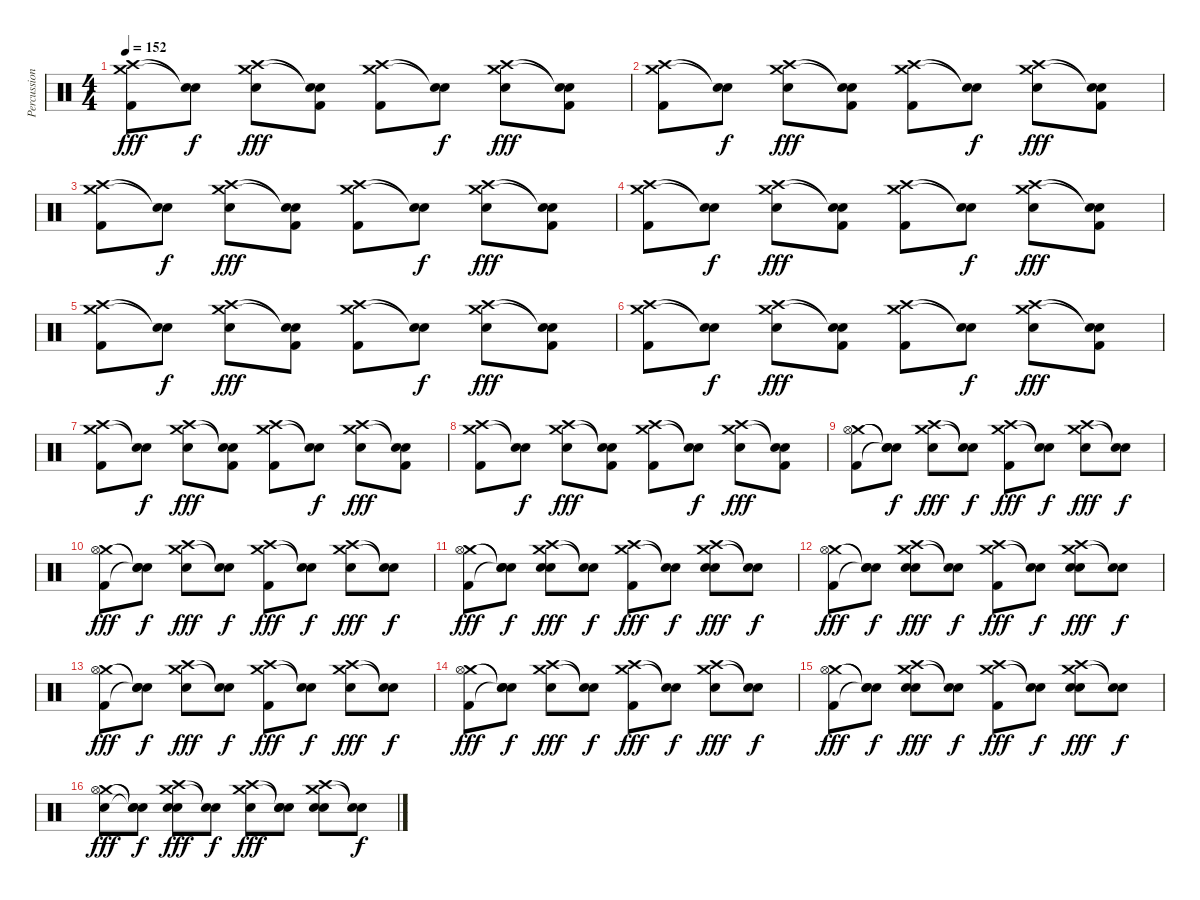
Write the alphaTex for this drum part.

\track ("Percussion" "Percussion") {instrument percussion}
\staff {score}
\articulation defaults
\ts (4 4)
\tempo 152
\clef neutral
\ks c
("Crash medium (hit)" "Crash high (hit)" "Kick (hit) 2").8{dy fff} ("Snare (hit)"{t} "Snare (hit)"{t}).8{dy f} ("Crash medium (hit)" "Crash high (hit)" "Electric Snare (hit)").8{dy fff} ("Snare (hit)"{t} "Snare (hit)"{t} "Kick (hit) 2").8 ("Crash medium (hit)" "Crash high (hit)" "Kick (hit) 2").8 ("Snare (hit)"{t} "Snare (hit)"{t}).8{dy f} ("Crash medium (hit)" "Crash high (hit)" "Electric Snare (hit)").8{dy fff} ("Snare (hit)"{t} "Snare (hit)"{t} "Kick (hit) 2").8 |
("Crash medium (hit)" "Crash high (hit)" "Kick (hit) 2").8 ("Snare (hit)"{t} "Snare (hit)"{t}).8{dy f} ("Crash medium (hit)" "Crash high (hit)" "Electric Snare (hit)").8{dy fff} ("Snare (hit)"{t} "Snare (hit)"{t} "Kick (hit) 2").8 ("Crash medium (hit)" "Crash high (hit)" "Kick (hit) 2").8 ("Snare (hit)"{t} "Snare (hit)"{t}).8{dy f} ("Crash medium (hit)" "Crash high (hit)" "Electric Snare (hit)").8{dy fff} ("Snare (hit)"{t} "Snare (hit)"{t} "Kick (hit) 2").8 |
("Crash medium (hit)" "Crash high (hit)" "Kick (hit) 2").8 ("Snare (hit)"{t} "Snare (hit)"{t}).8{dy f} ("Crash medium (hit)" "Crash high (hit)" "Electric Snare (hit)").8{dy fff} ("Snare (hit)"{t} "Snare (hit)"{t} "Kick (hit) 2").8 ("Crash medium (hit)" "Crash high (hit)" "Kick (hit) 2").8 ("Snare (hit)"{t} "Snare (hit)"{t}).8{dy f} ("Crash medium (hit)" "Crash high (hit)" "Electric Snare (hit)").8{dy fff} ("Snare (hit)"{t} "Snare (hit)"{t} "Kick (hit) 2").8 |
("Crash medium (hit)" "Crash high (hit)" "Kick (hit) 2").8 ("Snare (hit)"{t} "Snare (hit)"{t}).8{dy f} ("Crash medium (hit)" "Crash high (hit)" "Electric Snare (hit)").8{dy fff} ("Snare (hit)"{t} "Snare (hit)"{t} "Kick (hit) 2").8 ("Crash medium (hit)" "Crash high (hit)" "Kick (hit) 2").8 ("Snare (hit)"{t} "Snare (hit)"{t}).8{dy f} ("Crash medium (hit)" "Crash high (hit)" "Electric Snare (hit)").8{dy fff} ("Snare (hit)"{t} "Snare (hit)"{t} "Kick (hit) 2").8 |
("Crash medium (hit)" "Crash high (hit)" "Kick (hit) 2").8 ("Snare (hit)"{t} "Snare (hit)"{t}).8{dy f} ("Crash medium (hit)" "Crash high (hit)" "Electric Snare (hit)").8{dy fff} ("Snare (hit)"{t} "Snare (hit)"{t} "Kick (hit) 2").8 ("Crash medium (hit)" "Crash high (hit)" "Kick (hit) 2").8 ("Snare (hit)"{t} "Snare (hit)"{t}).8{dy f} ("Crash medium (hit)" "Crash high (hit)" "Electric Snare (hit)").8{dy fff} ("Snare (hit)"{t} "Snare (hit)"{t} "Kick (hit) 2").8 |
("Crash medium (hit)" "Crash high (hit)" "Kick (hit) 2").8 ("Snare (hit)"{t} "Snare (hit)"{t}).8{dy f} ("Crash medium (hit)" "Crash high (hit)" "Electric Snare (hit)").8{dy fff} ("Snare (hit)"{t} "Snare (hit)"{t} "Kick (hit) 2").8 ("Crash medium (hit)" "Crash high (hit)" "Kick (hit) 2").8 ("Snare (hit)"{t} "Snare (hit)"{t}).8{dy f} ("Crash medium (hit)" "Crash high (hit)" "Electric Snare (hit)").8{dy fff} ("Snare (hit)"{t} "Snare (hit)"{t} "Kick (hit) 2").8 |
("Crash medium (hit)" "Crash high (hit)" "Kick (hit) 2").8 ("Snare (hit)"{t} "Snare (hit)"{t}).8{dy f} ("Crash medium (hit)" "Crash high (hit)" "Electric Snare (hit)").8{dy fff} ("Snare (hit)"{t} "Snare (hit)"{t} "Kick (hit) 2").8 ("Crash medium (hit)" "Crash high (hit)" "Kick (hit) 2").8 ("Snare (hit)"{t} "Snare (hit)"{t}).8{dy f} ("Crash medium (hit)" "Crash high (hit)" "Electric Snare (hit)").8{dy fff} ("Snare (hit)"{t} "Snare (hit)"{t} "Kick (hit) 2").8 |
("Crash medium (hit)" "Crash high (hit)" "Kick (hit) 2").8 ("Snare (hit)"{t} "Snare (hit)"{t}).8{dy f} ("Crash medium (hit)" "Crash high (hit)" "Electric Snare (hit)").8{dy fff} ("Snare (hit)"{t} "Snare (hit)"{t} "Kick (hit) 2").8 ("Crash medium (hit)" "Crash high (hit)" "Kick (hit) 2").8 ("Snare (hit)"{t} "Snare (hit)"{t}).8{dy f} ("Crash medium (hit)" "Crash high (hit)" "Electric Snare (hit)").8{dy fff} ("Snare (hit)"{t} "Snare (hit)"{t} "Kick (hit) 2").8 |
("Crash medium (hit)" "Hi-Hat (open)" "Kick (hit) 2").8 ("Snare (hit)"{t} "Snare (hit)"{t} "Snare (hit)"{t}).8{dy f} ("Crash medium (hit)" "Crash high (hit)" "Electric Snare (hit)").8{dy fff} ("Snare (hit)"{t} "Snare (hit)"{t}).8{dy f} ("Crash medium (hit)" "Crash high (hit)" "Kick (hit) 2").8{dy fff} ("Snare (hit)"{t} "Snare (hit)"{t}).8{dy f} ("Crash medium (hit)" "Crash high (hit)" "Electric Snare (hit)").8{dy fff} ("Snare (hit)"{t} "Snare (hit)"{t}).8{dy f} |
("Crash medium (hit)" "Hi-Hat (open)" "Kick (hit) 2").8{dy fff} ("Snare (hit)"{t} "Snare (hit)"{t} "Snare (hit)"{t}).8{dy f} ("Crash medium (hit)" "Crash high (hit)" "Electric Snare (hit)").8{dy fff} ("Snare (hit)"{t} "Snare (hit)"{t}).8{dy f} ("Crash medium (hit)" "Crash high (hit)" "Kick (hit) 2").8{dy fff} ("Snare (hit)"{t} "Snare (hit)"{t}).8{dy f} ("Crash medium (hit)" "Crash high (hit)" "Electric Snare (hit)").8{dy fff} ("Snare (hit)"{t} "Snare (hit)"{t}).8{dy f} |
("Crash medium (hit)" "Hi-Hat (open)" "Kick (hit) 2").8{dy fff} ("Snare (hit)"{t} "Snare (hit)"{t} "Snare (hit)"{t}).8{dy f} ("Crash medium (hit)" "Crash high (hit)" "Hand Clap (hit)" "Electric Snare (hit)").8{dy fff} ("Snare (hit)"{t} "Snare (hit)"{t}).8{dy f} ("Crash medium (hit)" "Crash high (hit)" "Kick (hit) 2").8{dy fff} ("Snare (hit)"{t} "Snare (hit)"{t}).8{dy f} ("Crash medium (hit)" "Crash high (hit)" "Hand Clap (hit)" "Electric Snare (hit)").8{dy fff} ("Snare (hit)"{t} "Snare (hit)"{t}).8{dy f} |
("Crash medium (hit)" "Hi-Hat (open)" "Kick (hit) 2").8{dy fff} ("Snare (hit)"{t} "Snare (hit)"{t} "Snare (hit)"{t}).8{dy f} ("Crash medium (hit)" "Crash high (hit)" "Hand Clap (hit)" "Electric Snare (hit)").8{dy fff} ("Snare (hit)"{t} "Snare (hit)"{t}).8{dy f} ("Crash medium (hit)" "Crash high (hit)" "Kick (hit) 2").8{dy fff} ("Snare (hit)"{t} "Snare (hit)"{t}).8{dy f} ("Crash medium (hit)" "Crash high (hit)" "Hand Clap (hit)" "Electric Snare (hit)").8{dy fff} ("Snare (hit)"{t} "Snare (hit)"{t}).8{dy f} |
("Crash medium (hit)" "Hi-Hat (open)" "Kick (hit) 2").8{dy fff} ("Snare (hit)"{t} "Snare (hit)"{t} "Snare (hit)"{t}).8{dy f} ("Crash medium (hit)" "Crash high (hit)" "Electric Snare (hit)").8{dy fff} ("Snare (hit)"{t} "Snare (hit)"{t}).8{dy f} ("Crash medium (hit)" "Crash high (hit)" "Kick (hit) 2").8{dy fff} ("Snare (hit)"{t} "Snare (hit)"{t}).8{dy f} ("Crash medium (hit)" "Crash high (hit)" "Electric Snare (hit)").8{dy fff} ("Snare (hit)"{t} "Snare (hit)"{t}).8{dy f} |
("Crash medium (hit)" "Hi-Hat (open)" "Kick (hit) 2").8{dy fff} ("Snare (hit)"{t} "Snare (hit)"{t} "Snare (hit)"{t}).8{dy f} ("Crash medium (hit)" "Crash high (hit)" "Electric Snare (hit)").8{dy fff} ("Snare (hit)"{t} "Snare (hit)"{t}).8{dy f} ("Crash medium (hit)" "Crash high (hit)" "Kick (hit) 2").8{dy fff} ("Snare (hit)"{t} "Snare (hit)"{t}).8{dy f} ("Crash medium (hit)" "Crash high (hit)" "Electric Snare (hit)").8{dy fff} ("Snare (hit)"{t} "Snare (hit)"{t}).8{dy f} |
("Crash medium (hit)" "Hi-Hat (open)" "Kick (hit) 2").8{dy fff} ("Snare (hit)"{t} "Snare (hit)"{t} "Snare (hit)"{t}).8{dy f} ("Crash medium (hit)" "Crash high (hit)" "Hand Clap (hit)" "Electric Snare (hit)").8{dy fff} ("Snare (hit)"{t} "Snare (hit)"{t}).8{dy f} ("Crash medium (hit)" "Crash high (hit)" "Kick (hit) 2").8{dy fff} ("Snare (hit)"{t} "Snare (hit)"{t}).8{dy f} ("Crash medium (hit)" "Crash high (hit)" "Hand Clap (hit)" "Electric Snare (hit)").8{dy fff} ("Snare (hit)"{t} "Snare (hit)"{t}).8{dy f} |
("Crash medium (hit)" "Hi-Hat (open)" "Electric Snare (hit)").8{dy fff} ("Snare (hit)"{t} "Snare (hit)"{t} "Snare (hit)"{t}).8{dy f} ("Crash medium (hit)" "Crash high (hit)" "Hand Clap (hit)" "Electric Snare (hit)").8{dy fff} ("Snare (hit)"{t} "Snare (hit)"{t}).8{dy f} ("Crash medium (hit)" "Crash high (hit)" "Electric Snare (hit)").8{dy fff} ("Snare (hit)"{t} "Snare (hit)"{t} "Electric Snare (hit)").8 ("Crash medium (hit)" "Crash high (hit)" "Hand Clap (hit)" "Electric Snare (hit)").8 ("Snare (hit)"{t} "Snare (hit)"{t}).8{dy f}
